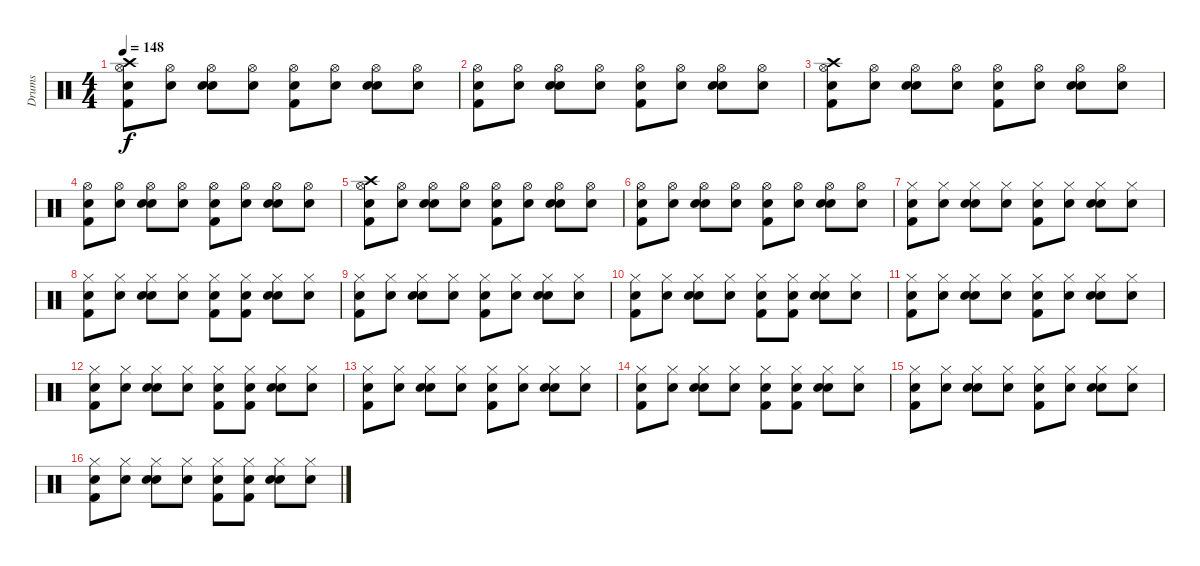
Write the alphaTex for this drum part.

\track ("Drums" "Drums") {instrument percussion}
\staff {score}
\articulation defaults
\ts (4 4)
\tempo 148
\clef neutral
\ks c
("Snare (hit)" "Kick (hit) 2" "Hi-Hat (open)" "Crash high (hit)").8{dy f} ("Snare (hit)" "Hi-Hat (open)").8 ("Snare (hit)" "Snare (hit) 2" "Hi-Hat (open)").8 ("Snare (hit)" "Hi-Hat (open)").8 ("Snare (hit)" "Kick (hit) 2" "Hi-Hat (open)").8 ("Snare (hit)" "Hi-Hat (open)").8 ("Snare (hit)" "Snare (hit) 2" "Hi-Hat (open)").8 ("Snare (hit)" "Hi-Hat (open)").8 |
("Snare (hit)" "Kick (hit) 2" "Hi-Hat (open)").8 ("Snare (hit)" "Hi-Hat (open)").8 ("Snare (hit)" "Snare (hit) 2" "Hi-Hat (open)").8 ("Snare (hit)" "Hi-Hat (open)").8 ("Snare (hit)" "Kick (hit) 2" "Hi-Hat (open)").8 ("Snare (hit)" "Hi-Hat (open)").8 ("Snare (hit)" "Snare (hit) 2" "Hi-Hat (open)").8 ("Snare (hit)" "Hi-Hat (open)").8 |
("Snare (hit)" "Kick (hit) 2" "Hi-Hat (open)" "Crash high (hit)").8 ("Snare (hit)" "Hi-Hat (open)").8 ("Snare (hit)" "Snare (hit) 2" "Hi-Hat (open)").8 ("Snare (hit)" "Hi-Hat (open)").8 ("Snare (hit)" "Kick (hit) 2" "Hi-Hat (open)").8 ("Snare (hit)" "Hi-Hat (open)").8 ("Snare (hit)" "Snare (hit) 2" "Hi-Hat (open)").8 ("Snare (hit)" "Hi-Hat (open)").8 |
("Snare (hit)" "Kick (hit) 2" "Hi-Hat (open)").8 ("Snare (hit)" "Hi-Hat (open)").8 ("Snare (hit)" "Snare (hit) 2" "Hi-Hat (open)").8 ("Snare (hit)" "Hi-Hat (open)").8 ("Snare (hit)" "Kick (hit) 2" "Hi-Hat (open)").8 ("Snare (hit)" "Hi-Hat (open)").8 ("Snare (hit)" "Snare (hit) 2" "Hi-Hat (open)").8 ("Snare (hit)" "Hi-Hat (open)").8 |
("Snare (hit)" "Kick (hit) 2" "Hi-Hat (open)" "Crash high (hit)").8 ("Snare (hit)" "Hi-Hat (open)").8 ("Snare (hit)" "Snare (hit) 2" "Hi-Hat (open)").8 ("Snare (hit)" "Hi-Hat (open)").8 ("Snare (hit)" "Kick (hit) 2" "Hi-Hat (open)").8 ("Snare (hit)" "Hi-Hat (open)").8 ("Snare (hit)" "Snare (hit) 2" "Hi-Hat (open)").8 ("Snare (hit)" "Hi-Hat (open)").8 |
("Snare (hit)" "Kick (hit) 2" "Hi-Hat (open)").8 ("Snare (hit)" "Hi-Hat (open)").8 ("Snare (hit)" "Snare (hit) 2" "Hi-Hat (open)").8 ("Snare (hit)" "Hi-Hat (open)").8 ("Snare (hit)" "Kick (hit) 2" "Hi-Hat (open)").8 ("Snare (hit)" "Hi-Hat (open)").8 ("Snare (hit)" "Snare (hit) 2" "Hi-Hat (open)").8 ("Snare (hit)" "Hi-Hat (open)").8 |
("Snare (hit)" "Kick (hit) 2" "Hi-Hat (closed)").8 ("Snare (hit)" "Hi-Hat (closed)").8 ("Snare (hit)" "Snare (hit) 2" "Hi-Hat (closed)").8 ("Snare (hit)" "Hi-Hat (closed)").8 ("Snare (hit)" "Kick (hit) 2" "Hi-Hat (closed)").8 ("Snare (hit)" "Hi-Hat (closed)").8 ("Snare (hit)" "Snare (hit) 2" "Hi-Hat (closed)").8 ("Snare (hit)" "Hi-Hat (closed)").8 |
("Snare (hit)" "Kick (hit) 2" "Hi-Hat (closed)").8 ("Snare (hit)" "Hi-Hat (closed)").8 ("Snare (hit)" "Snare (hit) 2" "Hi-Hat (closed)").8 ("Snare (hit)" "Hi-Hat (closed)").8 ("Snare (hit)" "Kick (hit) 2" "Hi-Hat (closed)").8 ("Snare (hit)" "Kick (hit) 2" "Hi-Hat (closed)").8 ("Snare (hit)" "Snare (hit) 2" "Hi-Hat (closed)").8 ("Snare (hit)" "Hi-Hat (closed)").8 |
("Snare (hit)" "Kick (hit) 2" "Hi-Hat (closed)").8 ("Snare (hit)" "Hi-Hat (closed)").8 ("Snare (hit)" "Snare (hit) 2" "Hi-Hat (closed)").8 ("Snare (hit)" "Hi-Hat (closed)").8 ("Snare (hit)" "Kick (hit) 2" "Hi-Hat (closed)").8 ("Snare (hit)" "Hi-Hat (closed)").8 ("Snare (hit)" "Snare (hit) 2" "Hi-Hat (closed)").8 ("Snare (hit)" "Hi-Hat (closed)").8 |
("Snare (hit)" "Kick (hit) 2" "Hi-Hat (closed)").8 ("Snare (hit)" "Hi-Hat (closed)").8 ("Snare (hit)" "Snare (hit) 2" "Hi-Hat (closed)").8 ("Snare (hit)" "Hi-Hat (closed)").8 ("Snare (hit)" "Kick (hit) 2" "Hi-Hat (closed)").8 ("Snare (hit)" "Kick (hit) 2" "Hi-Hat (closed)").8 ("Snare (hit)" "Snare (hit) 2" "Hi-Hat (closed)").8 ("Snare (hit)" "Hi-Hat (closed)").8 |
("Snare (hit)" "Kick (hit) 2" "Hi-Hat (closed)").8 ("Snare (hit)" "Hi-Hat (closed)").8 ("Snare (hit)" "Snare (hit) 2" "Hi-Hat (closed)").8 ("Snare (hit)" "Hi-Hat (closed)").8 ("Snare (hit)" "Kick (hit) 2" "Hi-Hat (closed)").8 ("Snare (hit)" "Hi-Hat (closed)").8 ("Snare (hit)" "Snare (hit) 2" "Hi-Hat (closed)").8 ("Snare (hit)" "Hi-Hat (closed)").8 |
("Snare (hit)" "Kick (hit) 2" "Hi-Hat (closed)").8 ("Snare (hit)" "Hi-Hat (closed)").8 ("Snare (hit)" "Snare (hit) 2" "Hi-Hat (closed)").8 ("Snare (hit)" "Hi-Hat (closed)").8 ("Snare (hit)" "Kick (hit) 2" "Hi-Hat (closed)").8 ("Snare (hit)" "Kick (hit) 2" "Hi-Hat (closed)").8 ("Snare (hit)" "Snare (hit) 2" "Hi-Hat (closed)").8 ("Snare (hit)" "Hi-Hat (closed)").8 |
("Snare (hit)" "Kick (hit) 2" "Hi-Hat (closed)").8 ("Snare (hit)" "Hi-Hat (closed)").8 ("Snare (hit)" "Snare (hit) 2" "Hi-Hat (closed)").8 ("Snare (hit)" "Hi-Hat (closed)").8 ("Snare (hit)" "Kick (hit) 2" "Hi-Hat (closed)").8 ("Snare (hit)" "Hi-Hat (closed)").8 ("Snare (hit)" "Snare (hit) 2" "Hi-Hat (closed)").8 ("Snare (hit)" "Hi-Hat (closed)").8 |
("Snare (hit)" "Kick (hit) 2" "Hi-Hat (closed)").8 ("Snare (hit)" "Hi-Hat (closed)").8 ("Snare (hit)" "Snare (hit) 2" "Hi-Hat (closed)").8 ("Snare (hit)" "Hi-Hat (closed)").8 ("Snare (hit)" "Kick (hit) 2" "Hi-Hat (closed)").8 ("Snare (hit)" "Kick (hit) 2" "Hi-Hat (closed)").8 ("Snare (hit)" "Snare (hit) 2" "Hi-Hat (closed)").8 ("Snare (hit)" "Hi-Hat (closed)").8 |
("Snare (hit)" "Kick (hit) 2" "Hi-Hat (closed)").8 ("Snare (hit)" "Hi-Hat (closed)").8 ("Snare (hit)" "Snare (hit) 2" "Hi-Hat (closed)").8 ("Snare (hit)" "Hi-Hat (closed)").8 ("Snare (hit)" "Kick (hit) 2" "Hi-Hat (closed)").8 ("Snare (hit)" "Hi-Hat (closed)").8 ("Snare (hit)" "Snare (hit) 2" "Hi-Hat (closed)").8 ("Snare (hit)" "Hi-Hat (closed)").8 |
("Snare (hit)" "Kick (hit) 2" "Hi-Hat (closed)").8 ("Snare (hit)" "Hi-Hat (closed)").8 ("Snare (hit)" "Snare (hit) 2" "Hi-Hat (closed)").8 ("Snare (hit)" "Hi-Hat (closed)").8 ("Snare (hit)" "Kick (hit) 2" "Hi-Hat (closed)").8 ("Snare (hit)" "Kick (hit) 2" "Hi-Hat (closed)").8 ("Snare (hit)" "Snare (hit) 2" "Hi-Hat (closed)").8 ("Snare (hit)" "Hi-Hat (closed)").8
